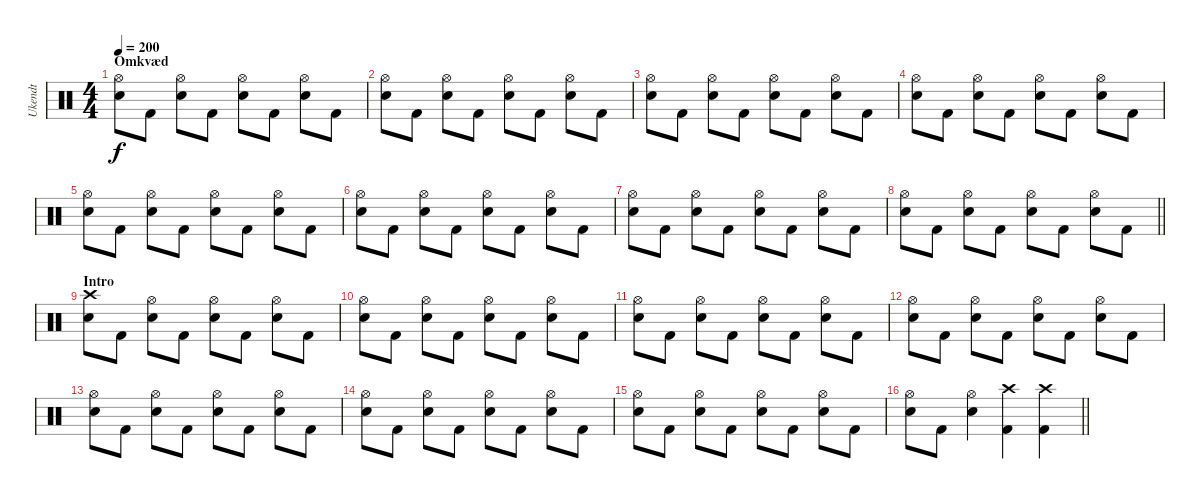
\track ("Ukendt" "Ukendt") {instrument percussion}
\staff {score}
\articulation defaults
\ts (4 4)
\section ("" "Omkvæd")
\tempo 200
\clef neutral
\ks c
("Hi-Hat (open)" "Snare (hit) 2").8{dy f} "Kick (hit) 2".8 ("Hi-Hat (open)" "Snare (hit) 2").8 "Kick (hit) 2".8 ("Hi-Hat (open)" "Snare (hit) 2").8 "Kick (hit) 2".8 ("Hi-Hat (open)" "Snare (hit) 2").8 "Kick (hit) 2".8 |
("Hi-Hat (open)" "Snare (hit) 2").8 "Kick (hit) 2".8 ("Hi-Hat (open)" "Snare (hit) 2").8 "Kick (hit) 2".8 ("Hi-Hat (open)" "Snare (hit) 2").8 "Kick (hit) 2".8 ("Hi-Hat (open)" "Snare (hit) 2").8 "Kick (hit) 2".8 |
("Hi-Hat (open)" "Snare (hit) 2").8 "Kick (hit) 2".8 ("Hi-Hat (open)" "Snare (hit) 2").8 "Kick (hit) 2".8 ("Hi-Hat (open)" "Snare (hit) 2").8 "Kick (hit) 2".8 ("Hi-Hat (open)" "Snare (hit) 2").8 "Kick (hit) 2".8 |
("Hi-Hat (open)" "Snare (hit) 2").8 "Kick (hit) 2".8 ("Hi-Hat (open)" "Snare (hit) 2").8 "Kick (hit) 2".8 ("Hi-Hat (open)" "Snare (hit) 2").8 "Kick (hit) 2".8 ("Hi-Hat (open)" "Snare (hit) 2").8 "Kick (hit) 2".8 |
("Hi-Hat (open)" "Snare (hit) 2").8 "Kick (hit) 2".8 ("Hi-Hat (open)" "Snare (hit) 2").8 "Kick (hit) 2".8 ("Hi-Hat (open)" "Snare (hit) 2").8 "Kick (hit) 2".8 ("Hi-Hat (open)" "Snare (hit) 2").8 "Kick (hit) 2".8 |
("Hi-Hat (open)" "Snare (hit) 2").8 "Kick (hit) 2".8 ("Hi-Hat (open)" "Snare (hit) 2").8 "Kick (hit) 2".8 ("Hi-Hat (open)" "Snare (hit) 2").8 "Kick (hit) 2".8 ("Hi-Hat (open)" "Snare (hit) 2").8 "Kick (hit) 2".8 |
("Hi-Hat (open)" "Snare (hit) 2").8 "Kick (hit) 2".8 ("Hi-Hat (open)" "Snare (hit) 2").8 "Kick (hit) 2".8 ("Hi-Hat (open)" "Snare (hit) 2").8 "Kick (hit) 2".8 ("Hi-Hat (open)" "Snare (hit) 2").8 "Kick (hit) 2".8 |
\barLineRight lightlight
("Hi-Hat (open)" "Snare (hit) 2").8 "Kick (hit) 2".8 ("Hi-Hat (open)" "Snare (hit) 2").8 "Kick (hit) 2".8 ("Hi-Hat (open)" "Snare (hit) 2").8 "Kick (hit) 2".8 ("Hi-Hat (open)" "Snare (hit) 2").8 "Kick (hit) 2".8 |
\section ("" "Intro")
("Crash high (hit)" "Snare (hit) 2").8 "Kick (hit) 2".8 ("Hi-Hat (open)" "Snare (hit) 2").8 "Kick (hit) 2".8 ("Hi-Hat (open)" "Snare (hit) 2").8 "Kick (hit) 2".8 ("Hi-Hat (open)" "Snare (hit) 2").8 "Kick (hit) 2".8 |
("Hi-Hat (open)" "Snare (hit) 2").8 "Kick (hit) 2".8 ("Hi-Hat (open)" "Snare (hit) 2").8 "Kick (hit) 2".8 ("Hi-Hat (open)" "Snare (hit) 2").8 "Kick (hit) 2".8 ("Hi-Hat (open)" "Snare (hit) 2").8 "Kick (hit) 2".8 |
("Hi-Hat (open)" "Snare (hit) 2").8 "Kick (hit) 2".8 ("Hi-Hat (open)" "Snare (hit) 2").8 "Kick (hit) 2".8 ("Hi-Hat (open)" "Snare (hit) 2").8 "Kick (hit) 2".8 ("Hi-Hat (open)" "Snare (hit) 2").8 "Kick (hit) 2".8 |
("Hi-Hat (open)" "Snare (hit) 2").8 "Kick (hit) 2".8 ("Hi-Hat (open)" "Snare (hit) 2").8 "Kick (hit) 2".8 ("Hi-Hat (open)" "Snare (hit) 2").8 "Kick (hit) 2".8 ("Hi-Hat (open)" "Snare (hit) 2").8 "Kick (hit) 2".8 |
("Hi-Hat (open)" "Snare (hit) 2").8 "Kick (hit) 2".8 ("Hi-Hat (open)" "Snare (hit) 2").8 "Kick (hit) 2".8 ("Hi-Hat (open)" "Snare (hit) 2").8 "Kick (hit) 2".8 ("Hi-Hat (open)" "Snare (hit) 2").8 "Kick (hit) 2".8 |
("Hi-Hat (open)" "Snare (hit) 2").8 "Kick (hit) 2".8 ("Hi-Hat (open)" "Snare (hit) 2").8 "Kick (hit) 2".8 ("Hi-Hat (open)" "Snare (hit) 2").8 "Kick (hit) 2".8 ("Hi-Hat (open)" "Snare (hit) 2").8 "Kick (hit) 2".8 |
("Hi-Hat (open)" "Snare (hit) 2").8 "Kick (hit) 2".8 ("Hi-Hat (open)" "Snare (hit) 2").8 "Kick (hit) 2".8 ("Hi-Hat (open)" "Snare (hit) 2").8 "Kick (hit) 2".8 ("Hi-Hat (open)" "Snare (hit) 2").8 "Kick (hit) 2".8 |
\barLineRight lightlight
("Hi-Hat (open)" "Snare (hit) 2").8 "Kick (hit) 2".8 ("Hi-Hat (open)" "Snare (hit) 2").4 ("Kick (hit) 2" "Crash high (hit)").4 ("Kick (hit) 2" "Crash high (hit)").4
